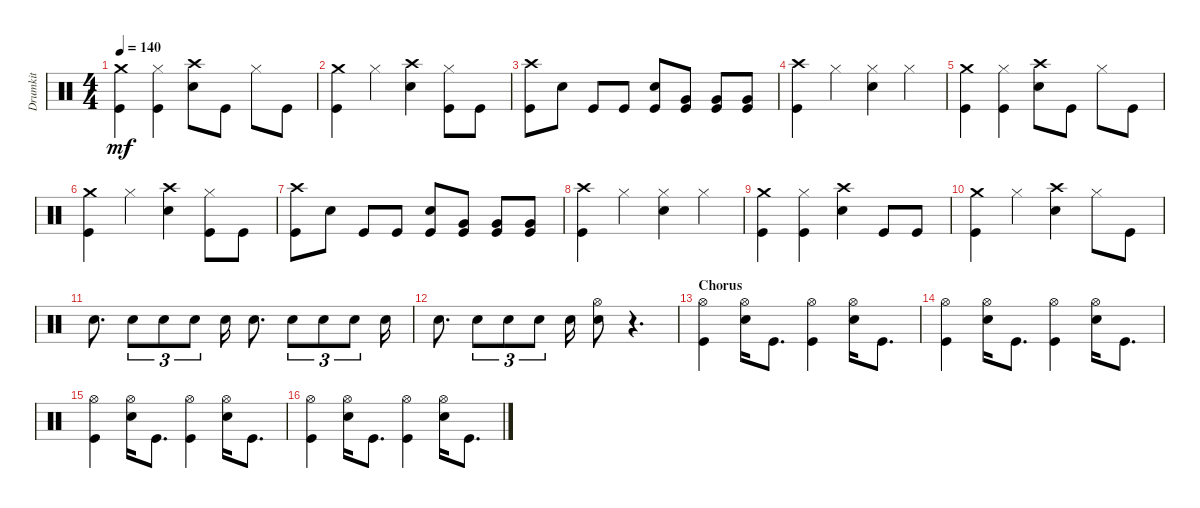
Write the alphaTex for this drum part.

\track ("Drumkit" "Drumkit") {instrument percussion}
\staff {score}
\articulation defaults
\ts (4 4)
\tempo 140
\clef neutral
\ks c
("Kick (hit)" "Crash medium (hit)").4{dy mf} ("Kick (hit)" "Hi-Hat (closed)").4 ("Snare (hit) 2" "Crash high (hit)").8 "Kick (hit)".8 "Hi-Hat (closed)".8 "Kick (hit)".8 |
("Kick (hit)" "Crash medium (hit)").4 "Hi-Hat (closed)".4 ("Snare (hit) 2" "Crash high (hit)").4 ("Hi-Hat (closed)" "Kick (hit)").8 "Kick (hit)".8 |
("Kick (hit)" "Crash high (hit)").8 "Snare (hit) 2".8 "Kick (hit)".8 "Kick (hit)".8 ("Kick (hit)" "Snare (hit) 2").8 ("Kick (hit)" "Very Low Tom (hit)").8 ("Kick (hit)" "Very Low Tom (hit)").8 ("Kick (hit)" "Very Low Tom (hit)").8 |
("Kick (hit)" "Crash high (hit)").4 "Hi-Hat (closed)".4 ("Snare (hit) 2" "Hi-Hat (closed)").4 "Hi-Hat (closed)".4 |
("Kick (hit)" "Crash medium (hit)").4 ("Kick (hit)" "Hi-Hat (closed)").4 ("Snare (hit) 2" "Crash high (hit)").8 "Kick (hit)".8 "Hi-Hat (closed)".8 "Kick (hit)".8 |
("Kick (hit)" "Crash medium (hit)").4 "Hi-Hat (closed)".4 ("Snare (hit) 2" "Crash high (hit)").4 ("Hi-Hat (closed)" "Kick (hit)").8 "Kick (hit)".8 |
("Kick (hit)" "Crash high (hit)").8 "Snare (hit) 2".8 "Kick (hit)".8 "Kick (hit)".8 ("Kick (hit)" "Snare (hit) 2").8 ("Kick (hit)" "Very Low Tom (hit)").8 ("Kick (hit)" "Very Low Tom (hit)").8 ("Kick (hit)" "Very Low Tom (hit)").8 |
("Kick (hit)" "Crash high (hit)").4 "Hi-Hat (closed)".4 ("Snare (hit) 2" "Hi-Hat (closed)").4 "Hi-Hat (closed)".4 |
("Kick (hit)" "Crash medium (hit)").4 ("Kick (hit)" "Hi-Hat (closed)").4 ("Snare (hit) 2" "Crash high (hit)").4 "Kick (hit)".8 "Kick (hit)".8 |
("Kick (hit)" "Crash medium (hit)").4 "Hi-Hat (closed)".4 ("Snare (hit) 2" "Crash high (hit)").4 "Hi-Hat (closed)".8 "Kick (hit)".8 |
"Snare (hit) 2".8{d} "Snare (hit) 2".8{tu (3 2)} "Snare (hit) 2".8{tu (3 2)} "Snare (hit) 2".8{tu (3 2)} "Snare (hit) 2".16 "Snare (hit) 2".8{d} "Snare (hit) 2".8{tu (3 2)} "Snare (hit) 2".8{tu (3 2)} "Snare (hit) 2".8{tu (3 2)} "Snare (hit) 2".16 |
"Snare (hit) 2".8{d} "Snare (hit) 2".8{tu (3 2)} "Snare (hit) 2".8{tu (3 2)} "Snare (hit) 2".8{tu (3 2)} "Snare (hit) 2".16 ("Snare (hit) 2" "Hi-Hat (open)").8 r.4{d} |
\section ("" "Chorus")
("Kick (hit)" "Hi-Hat (open)").4 ("Snare (hit) 2" "Hi-Hat (open)").16 "Kick (hit)".8{d} ("Kick (hit)" "Hi-Hat (open)").4 ("Snare (hit) 2" "Hi-Hat (open)").16 "Kick (hit)".8{d} |
("Kick (hit)" "Hi-Hat (open)").4 ("Snare (hit) 2" "Hi-Hat (open)").16 "Kick (hit)".8{d} ("Kick (hit)" "Hi-Hat (open)").4 ("Snare (hit) 2" "Hi-Hat (open)").16 "Kick (hit)".8{d} |
("Kick (hit)" "Hi-Hat (open)").4 ("Snare (hit) 2" "Hi-Hat (open)").16 "Kick (hit)".8{d} ("Kick (hit)" "Hi-Hat (open)").4 ("Snare (hit) 2" "Hi-Hat (open)").16 "Kick (hit)".8{d} |
("Kick (hit)" "Hi-Hat (open)").4 ("Snare (hit) 2" "Hi-Hat (open)").16 "Kick (hit)".8{d} ("Kick (hit)" "Hi-Hat (open)").4 ("Snare (hit) 2" "Hi-Hat (open)").16 "Kick (hit)".8{d}
